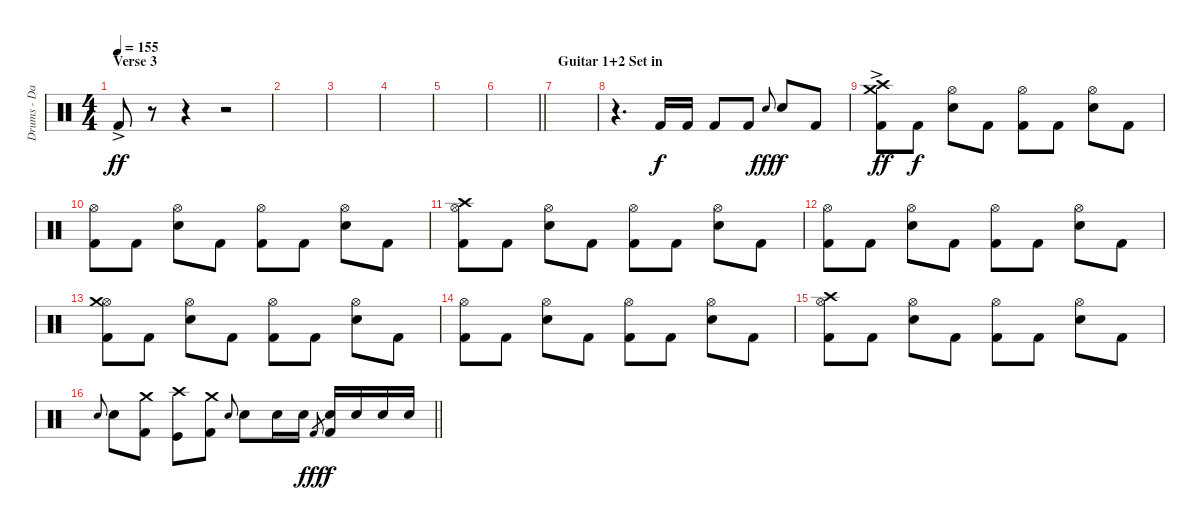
\track ("Drums - Daniel Adair" "Drums - Da") {instrument percussion bank 1}
\staff {score}
\articulation defaults
\ts (4 4)
\section ("" "Verse 3")
\tempo 155
\clef neutral
\ks c "Kick (hit) 2"{ac}.8{dy ff}
r.8 r.4 r.2 |
|
|
|
|
\barLineRight lightlight
|
\section ("" "Guitar 1+2 Set in")
|
r.4{d} "Kick (hit) 2".16{dy f} "Kick (hit) 2".16 "Kick (hit) 2".8 "Kick (hit) 2".8 "Snare (hit) 2".8{gr onbeat dy fff} "Snare (hit) 2".8{dy f} "Kick (hit) 2".8 |
("Crash high (hit)"{ac} "Crash medium (hit)"{ac} "Kick (hit) 2").8{dy ff} "Kick (hit) 2".8{dy f} ("Hi-Hat (open)" "Snare (hit) 2").8 "Kick (hit) 2".8 ("Hi-Hat (open)" "Kick (hit) 2").8 "Kick (hit) 2".8 ("Hi-Hat (open)" "Snare (hit) 2").8 "Kick (hit) 2".8 |
("Hi-Hat (open)" "Kick (hit) 2").8 "Kick (hit) 2".8 ("Hi-Hat (open)" "Snare (hit) 2").8 "Kick (hit) 2".8 ("Hi-Hat (open)" "Kick (hit) 2").8 "Kick (hit) 2".8 ("Hi-Hat (open)" "Snare (hit) 2").8 "Kick (hit) 2".8 |
("Hi-Hat (open)" "Crash high (hit)" "Kick (hit) 2").8 "Kick (hit) 2".8 ("Hi-Hat (open)" "Snare (hit) 2").8 "Kick (hit) 2".8 ("Hi-Hat (open)" "Kick (hit) 2").8 "Kick (hit) 2".8 ("Hi-Hat (open)" "Snare (hit) 2").8 "Kick (hit) 2".8 |
("Hi-Hat (open)" "Kick (hit) 2").8 "Kick (hit) 2".8 ("Hi-Hat (open)" "Snare (hit) 2").8 "Kick (hit) 2".8 ("Hi-Hat (open)" "Kick (hit) 2").8 "Kick (hit) 2".8 ("Hi-Hat (open)" "Snare (hit) 2").8 "Kick (hit) 2".8 |
("Hi-Hat (open)" "Crash medium (hit)" "Kick (hit) 2").8 "Kick (hit) 2".8 ("Hi-Hat (open)" "Snare (hit) 2").8 "Kick (hit) 2".8 ("Hi-Hat (open)" "Kick (hit) 2").8 "Kick (hit) 2".8 ("Hi-Hat (open)" "Snare (hit) 2").8 "Kick (hit) 2".8 |
("Hi-Hat (open)" "Kick (hit) 2").8 "Kick (hit) 2".8 ("Hi-Hat (open)" "Snare (hit) 2").8 "Kick (hit) 2".8 ("Hi-Hat (open)" "Kick (hit) 2").8 "Kick (hit) 2".8 ("Hi-Hat (open)" "Snare (hit) 2").8 "Kick (hit) 2".8 |
("Hi-Hat (open)" "Crash high (hit)" "Kick (hit) 2").8 "Kick (hit) 2".8 ("Hi-Hat (open)" "Snare (hit) 2").8 "Kick (hit) 2".8 ("Hi-Hat (open)" "Kick (hit) 2").8 "Kick (hit) 2".8 ("Hi-Hat (open)" "Snare (hit) 2").8 "Kick (hit) 2".8 |
\barLineRight lightlight "Snare (hit) 2".8{gr onbeat} "Snare (hit) 2".8
("Crash medium (hit)" "Kick (hit) 2").8 ("Crash high (hit)" "Kick (hit)").8 ("Crash medium (hit)" "Kick (hit) 2").8 "Snare (hit) 2".8{gr onbeat} "Snare (hit) 2".8 "Snare (hit) 2".16 "Snare (hit) 2".16 "Kick (hit) 2".8{gr dy fff} ("Snare (hit) 2" "Kick (hit) 2").16{dy f} "Snare (hit) 2".16 "Snare (hit) 2".16 "Snare (hit) 2".16
